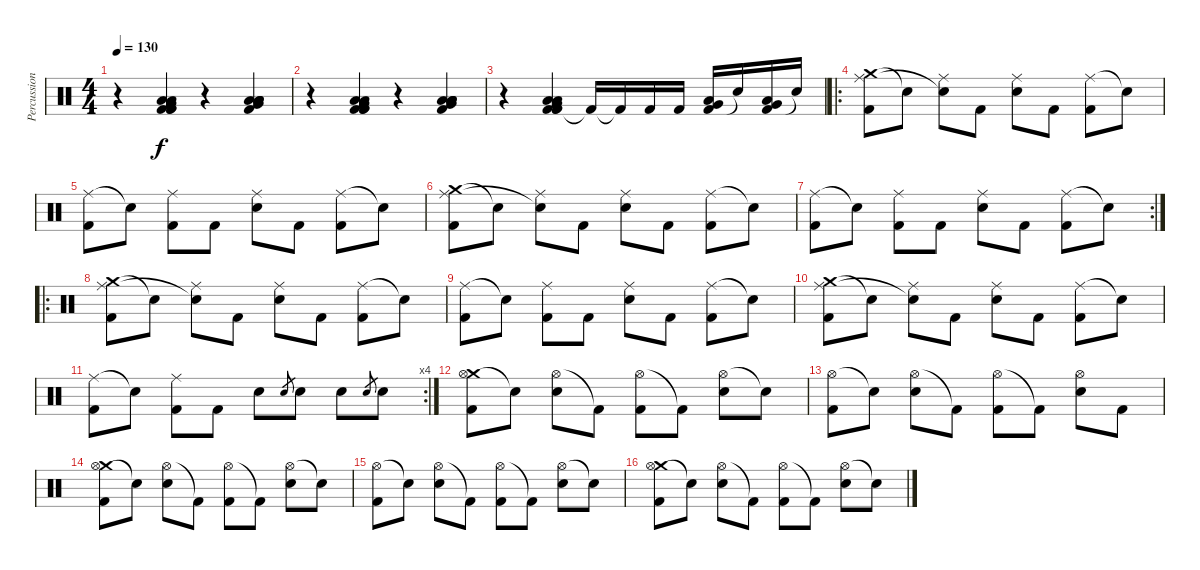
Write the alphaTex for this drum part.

\track ("Percussion" "Percussion") {instrument percussion}
\staff {score}
\articulation defaults
\ts (4 4)
\tempo 130
\clef neutral
\ks c
r.4{dy f} ("Kick (hit) 2" "Kick (hit) 2" "Kick (hit) 2" "Low Tom (hit)" "Very Low Tom (hit)" "Low Floor Tom (hit)").4 r.4 ("Low Floor Tom (hit)" "Low Floor Tom (hit)" "Kick (hit) 2" "Low Tom (hit)" "Very Low Tom (hit)" "Low Floor Tom (hit)").4 |
r.4 ("Kick (hit) 2" "Kick (hit) 2" "Kick (hit) 2" "Low Tom (hit)" "Very Low Tom (hit)" "Low Floor Tom (hit)").4 r.4 ("Low Floor Tom (hit)" "Low Floor Tom (hit)" "Kick (hit) 2" "Low Tom (hit)" "Very Low Tom (hit)" "Low Floor Tom (hit)").4 |
r.4 ("Kick (hit) 2" "Kick (hit) 2" "Kick (hit) 2" "Low Tom (hit)" "Very Low Tom (hit)" "Low Floor Tom (hit)").4 "Kick (hit) 2"{t}.16 "Kick (hit) 2"{t}.16 "Kick (hit) 2".16 "Kick (hit) 2".16 ("Kick (hit) 2" "Low Tom (hit)" "Very Low Tom (hit)").16 "Snare (hit)"{t}.16 ("Kick (hit) 2" "Low Tom (hit)" "Very Low Tom (hit)").16 "Snare (hit)"{t}.16 |
\ro
("Crash medium (hit)" "Ride (middle)" "Kick (hit) 2").8 "Snare (hit)"{t}.8 ("Ride (middle)" "Snare (hit)"{t}).8 "Kick (hit) 2".8 ("Ride (middle)" "Electric Snare (hit)").8 "Kick (hit) 2".8 ("Ride (middle)" "Kick (hit) 2").8 "Snare (hit)"{t}.8 |
("Ride (middle)" "Kick (hit) 2").8 "Snare (hit)"{t}.8 ("Ride (middle)" "Kick (hit) 2").8 "Kick (hit) 2".8 ("Ride (middle)" "Electric Snare (hit)").8 "Kick (hit) 2".8 ("Ride (middle)" "Kick (hit) 2").8 "Snare (hit)"{t}.8 |
("Crash medium (hit)" "Ride (middle)" "Kick (hit) 2").8 "Snare (hit)"{t}.8 ("Ride (middle)" "Snare (hit)"{t}).8 "Kick (hit) 2".8 ("Ride (middle)" "Electric Snare (hit)").8 "Kick (hit) 2".8 ("Ride (middle)" "Kick (hit) 2").8 "Snare (hit)"{t}.8 |
\rc 2
("Ride (middle)" "Kick (hit) 2").8 "Snare (hit)"{t}.8 ("Ride (middle)" "Kick (hit) 2").8 "Kick (hit) 2".8 ("Ride (middle)" "Electric Snare (hit)").8 "Kick (hit) 2".8 ("Ride (middle)" "Kick (hit) 2").8 "Snare (hit)"{t}.8 |
\ro
("Crash medium (hit)" "Ride (middle)" "Kick (hit) 2").8 "Snare (hit)"{t}.8 ("Ride (middle)" "Snare (hit)"{t}).8 "Kick (hit) 2".8 ("Ride (middle)" "Electric Snare (hit)").8 "Kick (hit) 2".8 ("Ride (middle)" "Kick (hit) 2").8 "Snare (hit)"{t}.8 |
("Ride (middle)" "Kick (hit) 2").8 "Snare (hit)"{t}.8 ("Ride (middle)" "Kick (hit) 2").8 "Kick (hit) 2".8 ("Ride (middle)" "Electric Snare (hit)").8 "Kick (hit) 2".8 ("Ride (middle)" "Kick (hit) 2").8 "Snare (hit)"{t}.8 |
("Crash medium (hit)" "Ride (middle)" "Kick (hit) 2").8 "Snare (hit)"{t}.8 ("Ride (middle)" "Snare (hit)"{t}).8 "Kick (hit) 2".8 ("Ride (middle)" "Electric Snare (hit)").8 "Kick (hit) 2".8 ("Ride (middle)" "Kick (hit) 2").8 "Snare (hit)"{t}.8 |
\rc 4
("Ride (middle)" "Kick (hit) 2").8 "Snare (hit)"{t}.8 ("Ride (middle)" "Kick (hit) 2").8 "Kick (hit) 2".8 "Electric Snare (hit)".8 "Electric Snare (hit)".8{gr} "Electric Snare (hit)".8 "Electric Snare (hit)".8 "Electric Snare (hit)".8{gr} "Electric Snare (hit)".8 |
("Crash medium (hit)" "Hi-Hat (open)" "Kick (hit) 2").8 "Snare (hit)"{t}.8 ("Hi-Hat (open)" "Electric Snare (hit)").8 "Kick (hit) 2"{t}.8 ("Hi-Hat (open)" "Kick (hit) 2").8 "Kick (hit) 2"{t}.8 ("Hi-Hat (open)" "Electric Snare (hit)").8 "Snare (hit)"{t}.8 |
("Hi-Hat (open)" "Kick (hit) 2").8 "Snare (hit)"{t}.8 ("Hi-Hat (open)" "Electric Snare (hit)").8 "Kick (hit) 2"{t}.8 ("Hi-Hat (open)" "Kick (hit) 2").8 "Kick (hit) 2"{t}.8 ("Hi-Hat (open)" "Electric Snare (hit)").8 "Kick (hit) 2".8 |
("Crash medium (hit)" "Hi-Hat (open)" "Kick (hit) 2").8 "Snare (hit)"{t}.8 ("Hi-Hat (open)" "Electric Snare (hit)").8 "Kick (hit) 2"{t}.8 ("Hi-Hat (open)" "Kick (hit) 2").8 "Kick (hit) 2"{t}.8 ("Hi-Hat (open)" "Electric Snare (hit)").8 "Snare (hit)"{t}.8 |
("Hi-Hat (open)" "Kick (hit) 2").8 "Snare (hit)"{t}.8 ("Hi-Hat (open)" "Electric Snare (hit)").8 "Kick (hit) 2"{t}.8 ("Hi-Hat (open)" "Kick (hit) 2").8 "Kick (hit) 2"{t}.8 ("Hi-Hat (open)" "Electric Snare (hit)").8 "Snare (hit)"{t}.8 |
("Crash medium (hit)" "Hi-Hat (open)" "Kick (hit) 2").8 "Snare (hit)"{t}.8 ("Hi-Hat (open)" "Electric Snare (hit)").8 "Kick (hit) 2"{t}.8 ("Hi-Hat (open)" "Kick (hit) 2").8 "Kick (hit) 2"{t}.8 ("Hi-Hat (open)" "Electric Snare (hit)").8 "Snare (hit)"{t}.8
